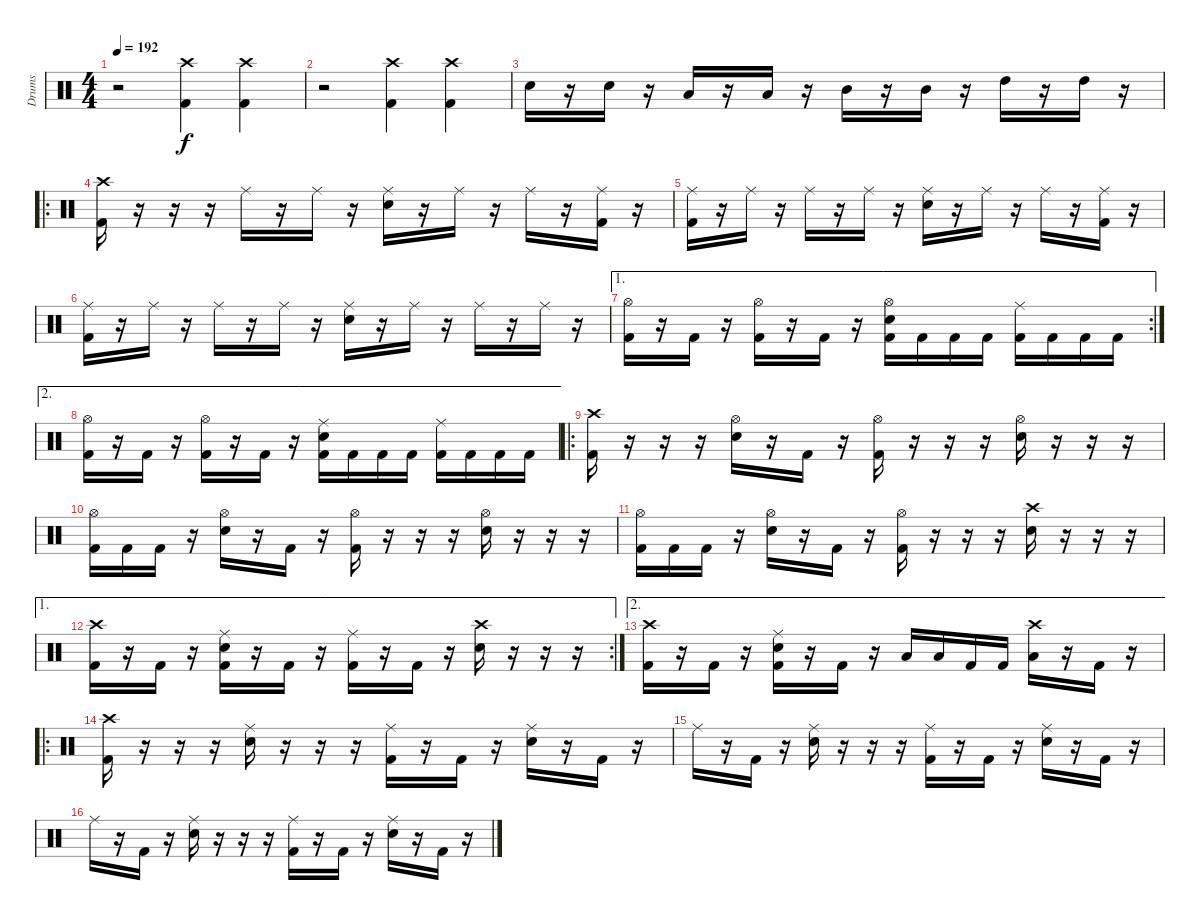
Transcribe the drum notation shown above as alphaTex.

\track ("Drums" "Drums") {instrument percussion}
\staff {score}
\articulation defaults
\ts (4 4)
\tempo 192
\clef neutral
\ks c
r.2{dy f} ("Crash high (hit)" "Kick (hit) 2").4 ("Crash high (hit)" "Kick (hit) 2").4 |
r.2 ("Crash high (hit)" "Kick (hit) 2").4 ("Crash high (hit)" "Kick (hit) 2").4 |
"Electric Snare (hit)".16 r.16 "Electric Snare (hit)".16 r.16 "Low Tom (hit)".16 r.16 "Low Tom (hit)".16 r.16 "Mid Tom (hit)".16 r.16 "Mid Tom (hit)".16 r.16 "High Tom (hit)".16 r.16 "High Tom (hit)".16 r.16 |
\ro
("Crash high (hit)" "Kick (hit) 2").16 r.16 r.16 r.16 "Ride (middle)".16 r.16 "Ride (middle)".16 r.16 ("Ride (middle)" "Electric Snare (hit)").16 r.16 "Ride (middle)".16 r.16 "Ride (middle)".16 r.16 ("Ride (middle)" "Kick (hit) 2").16 r.16 |
("Ride (middle)" "Kick (hit) 2").16 r.16 "Ride (middle)".16 r.16 "Ride (middle)".16 r.16 "Ride (middle)".16 r.16 ("Ride (middle)" "Electric Snare (hit)").16 r.16 "Ride (middle)".16 r.16 "Ride (middle)".16 r.16 ("Ride (middle)" "Kick (hit) 2").16 r.16 |
("Ride (middle)" "Kick (hit) 2").16 r.16 "Ride (middle)".16 r.16 "Ride (middle)".16 r.16 "Ride (middle)".16 r.16 ("Ride (middle)" "Electric Snare (hit)").16 r.16 "Ride (middle)".16 r.16 "Ride (middle)".16 r.16 "Ride (middle)".16 r.16 |
\ae 1
\rc 2
("Hi-Hat (open)" "Kick (hit) 2").16 r.16 "Kick (hit) 2".16 r.16 ("Hi-Hat (open)" "Kick (hit) 2").16 r.16 "Kick (hit) 2".16 r.16 ("Hi-Hat (open)" "Electric Snare (hit)" "Kick (hit) 2").16 "Kick (hit) 2".16 "Kick (hit) 2".16 "Kick (hit) 2".16 ("Ride (middle)" "Kick (hit) 2").16 "Kick (hit) 2".16 "Kick (hit) 2".16 "Kick (hit) 2".16 |
\ae 2
("Hi-Hat (open)" "Kick (hit) 2").16 r.16 "Kick (hit) 2".16 r.16 ("Hi-Hat (open)" "Kick (hit) 2").16 r.16 "Kick (hit) 2".16 r.16 ("Ride (middle)" "Electric Snare (hit)" "Kick (hit) 2").16 "Kick (hit) 2".16 "Kick (hit) 2".16 "Kick (hit) 2".16 ("Ride (middle)" "Kick (hit) 2").16 "Kick (hit) 2".16 "Kick (hit) 2".16 "Kick (hit) 2".16 |
\ro
("Crash high (hit)" "Kick (hit) 2").16 r.16 r.16 r.16 ("Hi-Hat (open)" "Electric Snare (hit)").16 r.16 "Kick (hit) 2".16 r.16 ("Hi-Hat (open)" "Kick (hit) 2").16 r.16 r.16 r.16 ("Hi-Hat (open)" "Electric Snare (hit)").16 r.16 r.16 r.16 |
("Hi-Hat (open)" "Kick (hit) 2").16 "Kick (hit) 2".16 "Kick (hit) 2".16 r.16 ("Hi-Hat (open)" "Electric Snare (hit)").16 r.16 "Kick (hit) 2".16 r.16 ("Hi-Hat (open)" "Kick (hit) 2").16 r.16 r.16 r.16 ("Hi-Hat (open)" "Electric Snare (hit)").16 r.16 r.16 r.16 |
("Hi-Hat (open)" "Kick (hit) 2").16 "Kick (hit) 2".16 "Kick (hit) 2".16 r.16 ("Hi-Hat (open)" "Electric Snare (hit)").16 r.16 "Kick (hit) 2".16 r.16 ("Hi-Hat (open)" "Kick (hit) 2").16 r.16 r.16 r.16 ("Crash high (hit)" "Electric Snare (hit)").16 r.16 r.16 r.16 |
\ae 1
\rc 2
("Crash high (hit)" "Kick (hit) 2").16 r.16 "Kick (hit) 2".16 r.16 ("Ride (middle)" "Electric Snare (hit)" "Kick (hit) 2").16 r.16 "Kick (hit) 2".16 r.16 ("Ride (middle)" "Kick (hit) 2").16 r.16 "Kick (hit) 2".16 r.16 ("Crash high (hit)" "Electric Snare (hit)").16 r.16 r.16 r.16 |
\ae 2
("Crash high (hit)" "Kick (hit) 2").16 r.16 "Kick (hit) 2".16 r.16 ("Ride (middle)" "Electric Snare (hit)" "Kick (hit) 2").16 r.16 "Kick (hit) 2".16 r.16 "Low Tom (hit)".16 "Low Tom (hit)".16 "Kick (hit) 2".16 "Kick (hit) 2".16 ("Crash high (hit)" "Low Tom (hit)").16 r.16 "Kick (hit) 2".16 r.16 |
\ro
("Crash high (hit)" "Kick (hit) 2").16 r.16 r.16 r.16 ("Ride (middle)" "Electric Snare (hit)").16 r.16 r.16 r.16 ("Ride (middle)" "Kick (hit) 2").16 r.16 "Kick (hit) 2".16 r.16 ("Ride (middle)" "Electric Snare (hit)").16 r.16 "Kick (hit) 2".16 r.16 |
"Ride (middle)".16 r.16 "Kick (hit) 2".16 r.16 ("Ride (middle)" "Electric Snare (hit)").16 r.16 r.16 r.16 ("Ride (middle)" "Kick (hit) 2").16 r.16 "Kick (hit) 2".16 r.16 ("Ride (middle)" "Electric Snare (hit)").16 r.16 "Kick (hit) 2".16 r.16 |
"Ride (middle)".16 r.16 "Kick (hit) 2".16 r.16 ("Ride (middle)" "Electric Snare (hit)").16 r.16 r.16 r.16 ("Ride (middle)" "Kick (hit) 2").16 r.16 "Kick (hit) 2".16 r.16 ("Ride (middle)" "Electric Snare (hit)").16 r.16 "Kick (hit) 2".16 r.16
